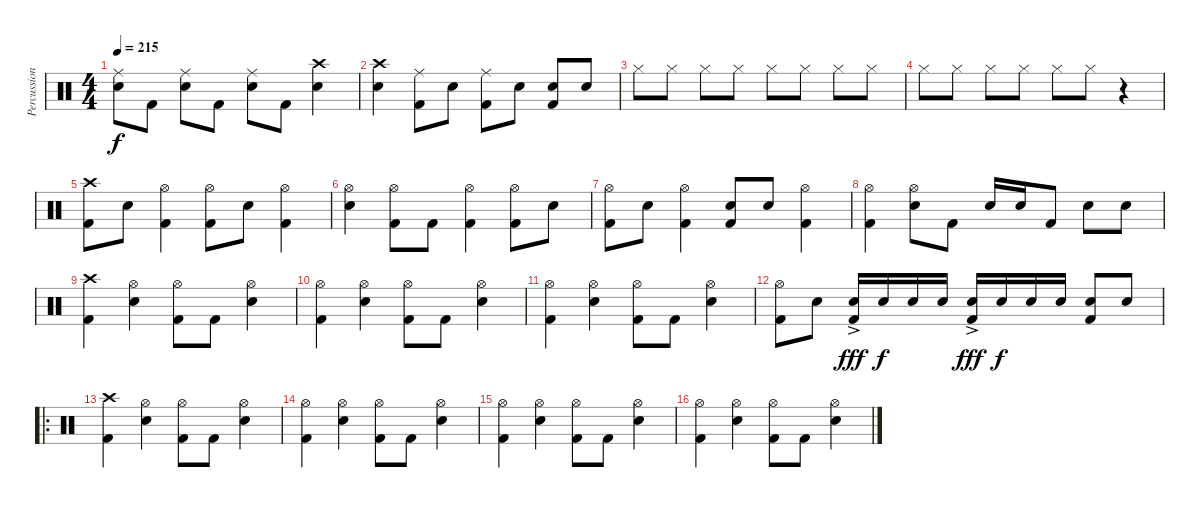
\track ("Percussion" "Percussion") {instrument percussion}
\staff {score}
\articulation defaults
\ts (4 4)
\tempo 215
\clef neutral
\ks aminor
("Ride (middle)" "Snare (hit) 2").8{dy f} "Kick (hit) 2".8 ("Ride (middle)" "Snare (hit) 2").8 "Kick (hit) 2".8 ("Ride (middle)" "Snare (hit) 2").8 "Kick (hit) 2".8 ("Crash high (hit)" "Snare (hit) 2").4 |
("Crash high (hit)" "Snare (hit) 2").4 ("Ride (middle)" "Kick (hit) 2").8 "Snare (hit) 2".8 ("Ride (middle)" "Kick (hit) 2").8 "Snare (hit) 2".8 ("Snare (hit) 2" "Kick (hit) 2").8 "Snare (hit) 2".8 |
"Hi-Hat (closed)".8 "Hi-Hat (closed)".8 "Hi-Hat (closed)".8 "Hi-Hat (closed)".8 "Hi-Hat (closed)".8 "Hi-Hat (closed)".8 "Hi-Hat (closed)".8 "Hi-Hat (closed)".8 |
"Hi-Hat (closed)".8 "Hi-Hat (closed)".8 "Hi-Hat (closed)".8 "Hi-Hat (closed)".8 "Hi-Hat (closed)".8 "Hi-Hat (closed)".8 r.4 |
("Crash high (hit)" "Kick (hit) 2").8 "Snare (hit) 2".8 ("Hi-Hat (open)" "Kick (hit) 2").4 ("Hi-Hat (open)" "Kick (hit) 2").8 "Snare (hit) 2".8 ("Hi-Hat (open)" "Kick (hit) 2").4 |
("Hi-Hat (open)" "Snare (hit) 2").4 ("Kick (hit) 2" "Hi-Hat (open)").8 "Kick (hit) 2".8 ("Hi-Hat (open)" "Kick (hit) 2").4 ("Kick (hit) 2" "Hi-Hat (open)").8 "Snare (hit) 2".8 |
("Hi-Hat (open)" "Kick (hit) 2").8 "Snare (hit) 2".8 ("Hi-Hat (open)" "Kick (hit) 2").4 ("Snare (hit) 2" "Kick (hit) 2").8 "Snare (hit) 2".8 ("Hi-Hat (open)" "Kick (hit) 2").4 |
("Hi-Hat (open)" "Kick (hit) 2").4 ("Hi-Hat (open)" "Snare (hit) 2").8 "Kick (hit) 2".8 "Snare (hit) 2".16 "Snare (hit) 2".16 "Kick (hit) 2".8 "Snare (hit) 2".8 "Snare (hit) 2".8 |
("Crash high (hit)" "Kick (hit) 2").4 ("Hi-Hat (open)" "Snare (hit) 2").4 ("Hi-Hat (open)" "Kick (hit) 2").8 "Kick (hit) 2".8 ("Hi-Hat (open)" "Snare (hit) 2").4 |
("Hi-Hat (open)" "Kick (hit) 2").4 ("Hi-Hat (open)" "Snare (hit) 2").4 ("Hi-Hat (open)" "Kick (hit) 2").8 "Kick (hit) 2".8 ("Hi-Hat (open)" "Snare (hit) 2").4 |
("Hi-Hat (open)" "Kick (hit) 2").4 ("Hi-Hat (open)" "Snare (hit) 2").4 ("Hi-Hat (open)" "Kick (hit) 2").8 "Kick (hit) 2".8 ("Hi-Hat (open)" "Snare (hit) 2").4 |
("Hi-Hat (open)" "Kick (hit) 2").8 "Snare (hit) 2".8 ("Snare (hit) 2"{ac} "Kick (hit) 2").16{dy fff} "Snare (hit) 2".16{dy f} "Snare (hit) 2".16 "Snare (hit) 2".16 ("Snare (hit) 2"{ac} "Kick (hit) 2").16{dy fff} "Snare (hit) 2".16{dy f} "Snare (hit) 2".16 "Snare (hit) 2".16 ("Snare (hit) 2" "Kick (hit) 2").8 "Snare (hit) 2".8 |
\ro
("Crash high (hit)" "Kick (hit) 2").4 ("Hi-Hat (open)" "Snare (hit) 2").4 ("Hi-Hat (open)" "Kick (hit) 2").8 "Kick (hit) 2".8 ("Hi-Hat (open)" "Snare (hit) 2").4 |
("Hi-Hat (open)" "Kick (hit) 2").4 ("Hi-Hat (open)" "Snare (hit) 2").4 ("Hi-Hat (open)" "Kick (hit) 2").8 "Kick (hit) 2".8 ("Hi-Hat (open)" "Snare (hit) 2").4 |
("Hi-Hat (open)" "Kick (hit) 2").4 ("Hi-Hat (open)" "Snare (hit) 2").4 ("Hi-Hat (open)" "Kick (hit) 2").8 "Kick (hit) 2".8 ("Hi-Hat (open)" "Snare (hit) 2").4 |
("Hi-Hat (open)" "Kick (hit) 2").4 ("Hi-Hat (open)" "Snare (hit) 2").4 ("Hi-Hat (open)" "Kick (hit) 2").8 "Kick (hit) 2".8 ("Hi-Hat (open)" "Snare (hit) 2").4
